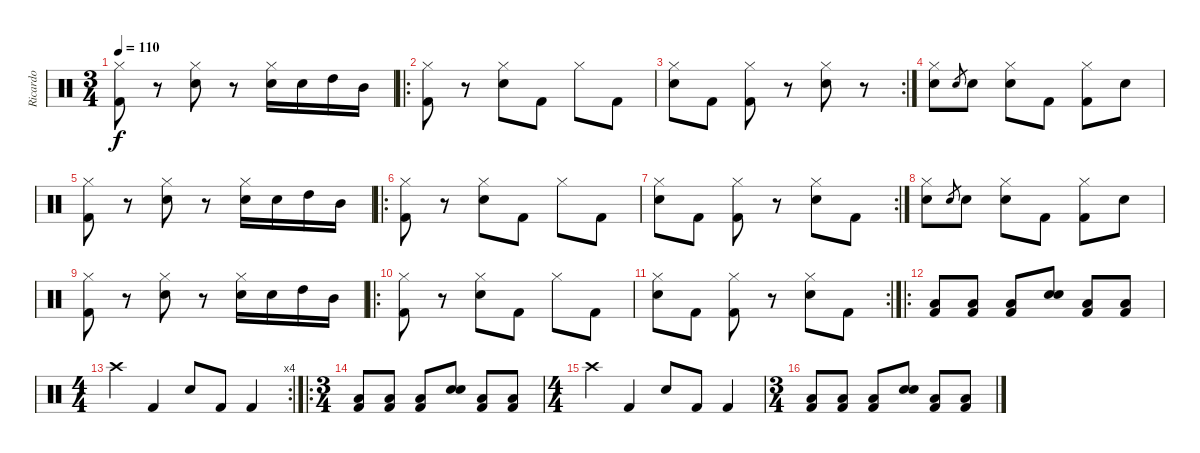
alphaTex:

\track ("Ricardo" "Ricardo") {instrument percussion}
\staff {score}
\articulation defaults
\ts (3 4)
\tempo 110
\clef neutral
\ks c
("Hi-Hat (closed)" "Kick (hit) 2").8{dy f} r.8 ("Hi-Hat (closed)" "Snare (hit) 2").8 r.8 ("Hi-Hat (closed)" "Snare (hit) 2").16 "Snare (hit) 2".16 "High Tom (hit)".16 "Mid Tom (hit)".16 |
\ro
("Hi-Hat (closed)" "Kick (hit) 2").8 r.8 ("Hi-Hat (closed)" "Snare (hit) 2").8 "Kick (hit) 2".8 "Hi-Hat (closed)".8 "Kick (hit) 2".8 |
\rc 2
("Hi-Hat (closed)" "Snare (hit) 2").8 "Kick (hit) 2".8 ("Hi-Hat (closed)" "Kick (hit) 2").8 r.8 ("Hi-Hat (closed)" "Snare (hit) 2").8 r.8 |
("Hi-Hat (closed)" "Snare (hit) 2").8 "Snare (hit) 2".8{gr} "Snare (hit) 2".8 ("Hi-Hat (closed)" "Snare (hit) 2").8 "Kick (hit) 2".8 ("Hi-Hat (closed)" "Kick (hit) 2").8 "Snare (hit) 2".8 |
("Hi-Hat (closed)" "Kick (hit) 2").8 r.8 ("Hi-Hat (closed)" "Snare (hit) 2").8 r.8 ("Hi-Hat (closed)" "Snare (hit) 2").16 "Snare (hit) 2".16 "High Tom (hit)".16 "Mid Tom (hit)".16 |
\ro
("Hi-Hat (closed)" "Kick (hit) 2").8 r.8 ("Hi-Hat (closed)" "Snare (hit) 2").8 "Kick (hit) 2".8 "Hi-Hat (closed)".8 "Kick (hit) 2".8 |
\rc 2
("Hi-Hat (closed)" "Snare (hit) 2").8 "Kick (hit) 2".8 ("Hi-Hat (closed)" "Kick (hit) 2").8 r.8 ("Hi-Hat (closed)" "Snare (hit) 2").8 "Kick (hit) 2".8 |
("Hi-Hat (closed)" "Snare (hit) 2").8 "Snare (hit) 2".8{gr} "Snare (hit) 2".8 ("Hi-Hat (closed)" "Snare (hit) 2").8 "Kick (hit) 2".8 ("Hi-Hat (closed)" "Kick (hit) 2").8 "Snare (hit) 2".8 |
("Hi-Hat (closed)" "Kick (hit) 2").8 r.8 ("Hi-Hat (closed)" "Snare (hit) 2").8 r.8 ("Hi-Hat (closed)" "Snare (hit) 2").16 "Snare (hit) 2".16 "High Tom (hit)".16 "Mid Tom (hit)".16 |
\ro
("Hi-Hat (closed)" "Kick (hit) 2").8 r.8 ("Hi-Hat (closed)" "Snare (hit) 2").8 "Kick (hit) 2".8 "Hi-Hat (closed)".8 "Kick (hit) 2".8 |
\rc 2
("Hi-Hat (closed)" "Snare (hit) 2").8 "Kick (hit) 2".8 ("Hi-Hat (closed)" "Kick (hit) 2").8 r.8 ("Hi-Hat (closed)" "Snare (hit) 2").8 "Kick (hit) 2".8 |
\ro
("Kick (hit) 2" "Low Floor Tom (hit)").8 ("Kick (hit) 2" "Low Floor Tom (hit)").8 ("Kick (hit) 2" "Low Floor Tom (hit)").8 ("Snare (hit) 2" "Electric Snare (hit)").8 ("Low Floor Tom (hit)" "Kick (hit) 2").8 ("Low Floor Tom (hit)" "Kick (hit) 2").8 |
\rc 4
\ts (4 4)
"Crash high (hit)".4 "Kick (hit) 2".4 "Snare (hit) 2".8 "Kick (hit) 2".8 "Kick (hit) 2".4 |
\ro
\ts (3 4)
("Kick (hit) 2" "Low Floor Tom (hit)").8 ("Kick (hit) 2" "Low Floor Tom (hit)").8 ("Kick (hit) 2" "Low Floor Tom (hit)").8 ("Snare (hit) 2" "Electric Snare (hit)").8 ("Low Floor Tom (hit)" "Kick (hit) 2").8 ("Low Floor Tom (hit)" "Kick (hit) 2").8 |
\ts (4 4)
"Crash high (hit)".4 "Kick (hit) 2".4 "Snare (hit) 2".8 "Kick (hit) 2".8 "Kick (hit) 2".4 |
\ts (3 4)
("Kick (hit) 2" "Low Floor Tom (hit)").8 ("Kick (hit) 2" "Low Floor Tom (hit)").8 ("Kick (hit) 2" "Low Floor Tom (hit)").8 ("Snare (hit) 2" "Electric Snare (hit)").8 ("Low Floor Tom (hit)" "Kick (hit) 2").8 ("Low Floor Tom (hit)" "Kick (hit) 2").8
